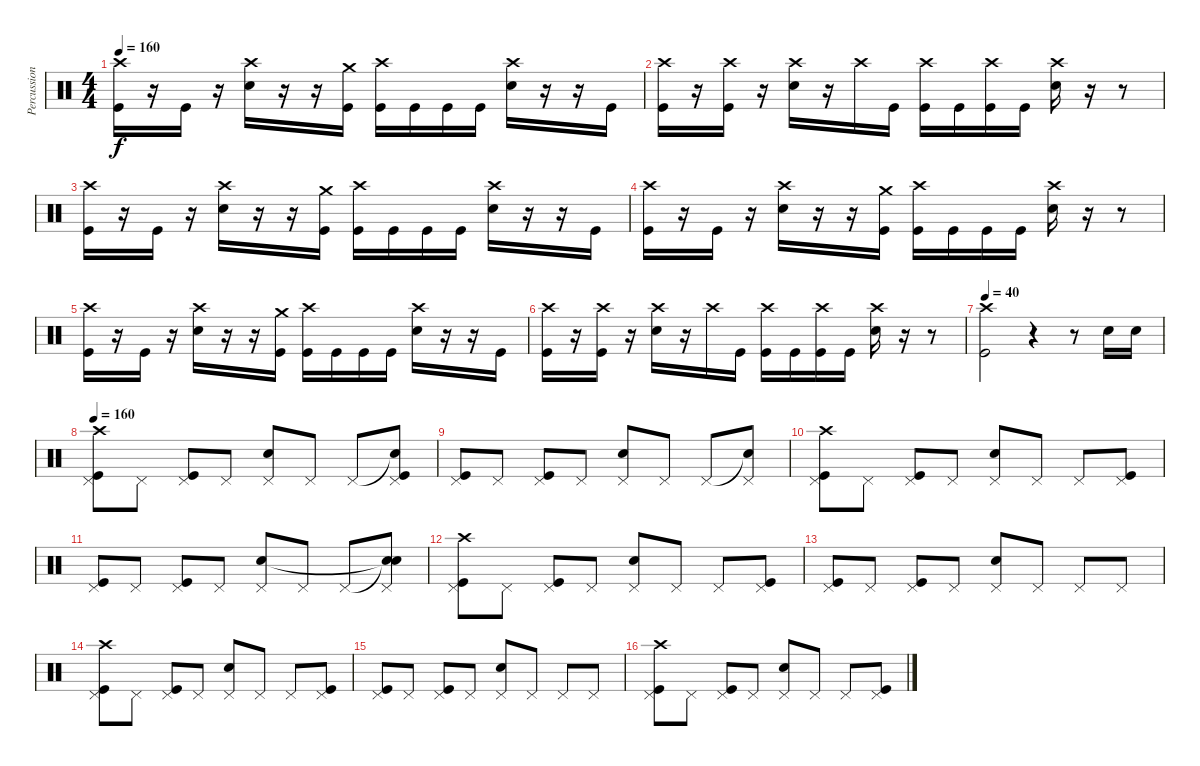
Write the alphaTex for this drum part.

\track ("Percussion" "Percussion") {instrument percussion}
\staff {score}
\articulation defaults
\ts (4 4)
\tempo 160
\clef neutral
\ks c
("Crash high (hit)" "Kick (hit)").16{dy f} r.16 "Kick (hit)".16 r.16 ("Crash high (hit)" "Snare (hit) 2").16 r.16 r.16 ("Crash medium (hit)" "Kick (hit)").16 ("Crash high (hit)" "Kick (hit)").16 "Kick (hit)".16 "Kick (hit)".16 "Kick (hit)".16 ("Crash high (hit)" "Snare (hit) 2").16 r.16 r.16 "Kick (hit)".16 |
("Crash high (hit)" "Kick (hit)").16 r.16 ("Crash high (hit)" "Kick (hit)").16 r.16 ("Crash high (hit)" "Snare (hit) 2").16 r.16 "Crash high (hit)".16 "Kick (hit)".16 ("Crash high (hit)" "Kick (hit)").16 "Kick (hit)".16 ("Crash high (hit)" "Kick (hit)").16 "Kick (hit)".16 ("Crash high (hit)" "Snare (hit) 2").16 r.16 r.8 |
("Crash high (hit)" "Kick (hit)").16 r.16 "Kick (hit)".16 r.16 ("Crash high (hit)" "Snare (hit) 2").16 r.16 r.16 ("Crash medium (hit)" "Kick (hit)").16 ("Crash high (hit)" "Kick (hit)").16 "Kick (hit)".16 "Kick (hit)".16 "Kick (hit)".16 ("Crash high (hit)" "Snare (hit) 2").16 r.16 r.16 "Kick (hit)".16 |
("Crash high (hit)" "Kick (hit)").16 r.16 "Kick (hit)".16 r.16 ("Crash high (hit)" "Snare (hit) 2").16 r.16 r.16 ("Crash medium (hit)" "Kick (hit)").16 ("Crash high (hit)" "Kick (hit)").16 "Kick (hit)".16 "Kick (hit)".16 "Kick (hit)".16 ("Crash high (hit)" "Snare (hit) 2").16 r.16 r.8 |
("Crash high (hit)" "Kick (hit)").16 r.16 "Kick (hit)".16 r.16 ("Crash high (hit)" "Snare (hit) 2").16 r.16 r.16 ("Crash medium (hit)" "Kick (hit)").16 ("Crash high (hit)" "Kick (hit)").16 "Kick (hit)".16 "Kick (hit)".16 "Kick (hit)".16 ("Crash high (hit)" "Snare (hit) 2").16 r.16 r.16 "Kick (hit)".16 |
("Crash high (hit)" "Kick (hit)").16 r.16 ("Crash high (hit)" "Kick (hit)").16 r.16 ("Crash high (hit)" "Snare (hit) 2").16 r.16 "Crash high (hit)".16 "Kick (hit)".16 ("Crash high (hit)" "Kick (hit)").16 "Kick (hit)".16 ("Crash high (hit)" "Kick (hit)").16 "Kick (hit)".16 ("Crash high (hit)" "Snare (hit) 2").16 r.16 r.8 |
\tempo 40
("Crash high (hit)" "Kick (hit)").2 r.4 r.8 "Snare (hit) 2".16 "Snare (hit) 2".16 |
\tempo 160
("Crash high (hit)" "Pedal Hi-Hat (hit)" "Kick (hit)").8 "Pedal Hi-Hat (hit)".8 ("Pedal Hi-Hat (hit)" "Kick (hit)").8 "Pedal Hi-Hat (hit)".8 ("Pedal Hi-Hat (hit)" "Snare (hit) 2").8 "Pedal Hi-Hat (hit)".8 "Pedal Hi-Hat (hit)".8 ("Snare (hit)"{t} "Pedal Hi-Hat (hit)" "Kick (hit)").8 |
("Pedal Hi-Hat (hit)" "Kick (hit)").8 "Pedal Hi-Hat (hit)".8 ("Pedal Hi-Hat (hit)" "Kick (hit)").8 "Pedal Hi-Hat (hit)".8 ("Pedal Hi-Hat (hit)" "Snare (hit) 2").8 "Pedal Hi-Hat (hit)".8 "Pedal Hi-Hat (hit)".8 ("Snare (hit)"{t} "Pedal Hi-Hat (hit)").8 |
("Crash high (hit)" "Pedal Hi-Hat (hit)" "Kick (hit)").8 "Pedal Hi-Hat (hit)".8 ("Pedal Hi-Hat (hit)" "Kick (hit)").8 "Pedal Hi-Hat (hit)".8 ("Pedal Hi-Hat (hit)" "Snare (hit) 2").8 "Pedal Hi-Hat (hit)".8 "Pedal Hi-Hat (hit)".8 ("Pedal Hi-Hat (hit)" "Kick (hit)").8 |
("Pedal Hi-Hat (hit)" "Kick (hit)").8 "Pedal Hi-Hat (hit)".8 ("Pedal Hi-Hat (hit)" "Kick (hit)").8 "Pedal Hi-Hat (hit)".8 ("Pedal Hi-Hat (hit)" "Snare (hit) 2").8 "Pedal Hi-Hat (hit)".8 "Pedal Hi-Hat (hit)".8 ("Snare (hit)"{t} "Snare (hit)"{t} "Pedal Hi-Hat (hit)").8 |
("Crash high (hit)" "Pedal Hi-Hat (hit)" "Kick (hit)").8 "Pedal Hi-Hat (hit)".8 ("Pedal Hi-Hat (hit)" "Kick (hit)").8 "Pedal Hi-Hat (hit)".8 ("Pedal Hi-Hat (hit)" "Snare (hit) 2").8 "Pedal Hi-Hat (hit)".8 "Pedal Hi-Hat (hit)".8 ("Pedal Hi-Hat (hit)" "Kick (hit)").8 |
("Pedal Hi-Hat (hit)" "Kick (hit)").8 "Pedal Hi-Hat (hit)".8 ("Pedal Hi-Hat (hit)" "Kick (hit)").8 "Pedal Hi-Hat (hit)".8 ("Pedal Hi-Hat (hit)" "Snare (hit) 2").8 "Pedal Hi-Hat (hit)".8 "Pedal Hi-Hat (hit)".8 "Pedal Hi-Hat (hit)".8 |
("Crash high (hit)" "Pedal Hi-Hat (hit)" "Kick (hit)").8 "Pedal Hi-Hat (hit)".8 ("Pedal Hi-Hat (hit)" "Kick (hit)").8 "Pedal Hi-Hat (hit)".8 ("Pedal Hi-Hat (hit)" "Snare (hit) 2").8 "Pedal Hi-Hat (hit)".8 "Pedal Hi-Hat (hit)".8 ("Pedal Hi-Hat (hit)" "Kick (hit)").8 |
("Pedal Hi-Hat (hit)" "Kick (hit)").8 "Pedal Hi-Hat (hit)".8 ("Pedal Hi-Hat (hit)" "Kick (hit)").8 "Pedal Hi-Hat (hit)".8 ("Pedal Hi-Hat (hit)" "Snare (hit) 2").8 "Pedal Hi-Hat (hit)".8 "Pedal Hi-Hat (hit)".8 "Pedal Hi-Hat (hit)".8 |
("Crash high (hit)" "Pedal Hi-Hat (hit)" "Kick (hit)").8 "Pedal Hi-Hat (hit)".8 ("Pedal Hi-Hat (hit)" "Kick (hit)").8 "Pedal Hi-Hat (hit)".8 ("Pedal Hi-Hat (hit)" "Snare (hit) 2").8 "Pedal Hi-Hat (hit)".8 "Pedal Hi-Hat (hit)".8 ("Pedal Hi-Hat (hit)" "Kick (hit)").8
